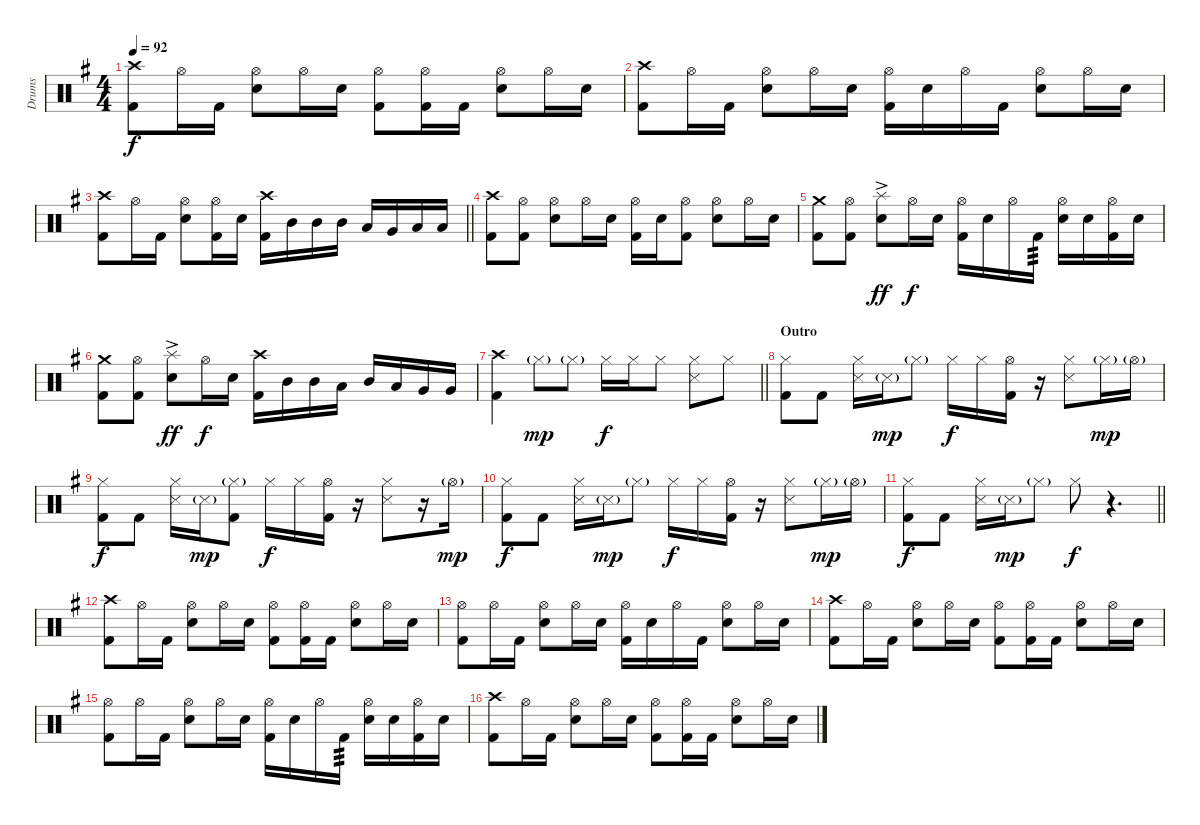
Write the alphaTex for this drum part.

\track ("Drums" "Drums") {instrument percussion}
\staff {score}
\articulation defaults
\ts (4 4)
\tempo 92
\clef neutral
\ks g
("Crash high (hit)" "Kick (hit) 2").8{dy f} "Hi-Hat (open)".16 "Kick (hit) 2".16 ("Hi-Hat (open)" "Electric Snare (hit)").8 "Hi-Hat (open)".16 "Electric Snare (hit)".16 ("Hi-Hat (open)" "Kick (hit) 2").8 ("Hi-Hat (open)" "Kick (hit) 2").16 "Kick (hit) 2".16 ("Hi-Hat (open)" "Electric Snare (hit)").8 "Hi-Hat (open)".16 "Electric Snare (hit)".16 |
("Crash high (hit)" "Kick (hit) 2").8 "Hi-Hat (open)".16 "Kick (hit) 2".16 ("Hi-Hat (open)" "Electric Snare (hit)").8 "Hi-Hat (open)".16 "Electric Snare (hit)".16 ("Hi-Hat (open)" "Kick (hit) 2").16 "Electric Snare (hit)".16 "Hi-Hat (open)".16 "Kick (hit) 2".16 ("Hi-Hat (open)" "Electric Snare (hit)").8 "Hi-Hat (open)".16 "Electric Snare (hit)".16 |
\barLineRight lightlight
("Crash high (hit)" "Kick (hit) 2").8 "Hi-Hat (open)".16 "Kick (hit) 2".16 ("Hi-Hat (open)" "Electric Snare (hit)").8 ("Hi-Hat (open)" "Kick (hit) 2").16 "Electric Snare (hit)".16 ("Crash high (hit)" "Kick (hit) 2").16 "Mid Tom (hit)".16 "Mid Tom (hit)".16 "Mid Tom (hit)".16 "Low Tom (hit)".16 "Very Low Tom (hit)".16 "Low Floor Tom (hit)".16 "Low Floor Tom (hit)".16 |
\section ("" "")
("Crash high (hit)" "Kick (hit) 2").8 ("Hi-Hat (open)" "Kick (hit) 2").8 ("Hi-Hat (open)" "Electric Snare (hit)").8 "Hi-Hat (open)".16 "Electric Snare (hit)".16 ("Hi-Hat (open)" "Kick (hit) 2").16 "Electric Snare (hit)".16 ("Hi-Hat (open)" "Kick (hit) 2").8 ("Hi-Hat (open)" "Electric Snare (hit)").8 "Hi-Hat (open)".16 "Electric Snare (hit)".16 |
("Crash medium (hit)" "Kick (hit) 2").8 ("Hi-Hat (open)" "Kick (hit) 2").8 ("Splash (hit)"{ac} "Electric Snare (hit)").8{dy ff} "Hi-Hat (open)".16{dy f} "Electric Snare (hit)".16 ("Hi-Hat (open)" "Kick (hit) 2").16 "Electric Snare (hit)".16 "Hi-Hat (open)".16 "Kick (hit) 2".16{tp 3} ("Hi-Hat (open)" "Electric Snare (hit)").16 "Electric Snare (hit)".16 ("Hi-Hat (open)" "Kick (hit) 2").16 "Electric Snare (hit)".16 |
("Crash medium (hit)" "Kick (hit) 2").8 ("Hi-Hat (open)" "Kick (hit) 2").8 ("Splash (hit)"{ac} "Electric Snare (hit)").8{dy ff} "Hi-Hat (open)".16{dy f} "Electric Snare (hit)".16 ("Crash high (hit)" "Kick (hit) 2").16 "Mid Tom (hit)".16 "Mid Tom (hit)".16 "Low Tom (hit)".16 "Mid Tom (hit)".16 "Low Tom (hit)".16 "Very Low Tom (hit)".16 "Very Low Tom (hit)".16 |
\barLineRight lightlight
("Crash high (hit)" "Kick (hit) 2").4 "Hi-Hat (closed)"{g}.8{dy mp} "Hi-Hat (closed)"{g}.8 "Hi-Hat (closed)".16{dy f} "Hi-Hat (closed)".16 "Hi-Hat (closed)".8 ("Hi-Hat (closed)" "Snare (side stick) 3").8 "Hi-Hat (closed)".8 |
\section ("" "Outro")
("Hi-Hat (closed)" "Kick (hit) 2").8 "Kick (hit) 2".8 ("Hi-Hat (closed)" "Snare (side stick) 3").16 "Snare (side stick) 3"{g}.16{dy mp} "Hi-Hat (closed)"{g}.8 "Hi-Hat (closed)".16{dy f} "Hi-Hat (closed)".16 ("Hi-Hat (open)" "Kick (hit) 2").16 r.16 ("Hi-Hat (closed)" "Snare (side stick) 3").8 "Hi-Hat (closed)"{g}.16{dy mp} "Hi-Hat (open)"{g}.16 |
("Hi-Hat (closed)" "Kick (hit) 2").8{dy f} "Kick (hit) 2".8 ("Hi-Hat (closed)" "Snare (side stick) 3").16 "Snare (side stick) 3"{g}.16{dy mp} ("Hi-Hat (closed)"{g} "Kick (hit) 2").8 "Hi-Hat (closed)".16{dy f} "Hi-Hat (closed)".16 ("Hi-Hat (open)" "Kick (hit) 2").16 r.16 ("Hi-Hat (closed)" "Snare (side stick) 3").8 r.16 "Hi-Hat (open)"{g}.16{dy mp} |
("Hi-Hat (closed)" "Kick (hit) 2").8{dy f} "Kick (hit) 2".8 ("Hi-Hat (closed)" "Snare (side stick) 3").16 "Snare (side stick) 3"{g}.16{dy mp} "Hi-Hat (closed)"{g}.8 "Hi-Hat (closed)".16{dy f} "Hi-Hat (closed)".16 ("Hi-Hat (open)" "Kick (hit) 2").16 r.16 ("Hi-Hat (closed)" "Snare (side stick) 3").8 "Hi-Hat (closed)"{g}.16{dy mp} "Hi-Hat (open)"{g}.16 |
\barLineRight lightlight
("Hi-Hat (closed)" "Kick (hit) 2").8{dy f} "Kick (hit) 2".8 ("Hi-Hat (closed)" "Snare (side stick) 3").16 "Snare (side stick) 3"{g}.16{dy mp} "Hi-Hat (closed)"{g}.8 "Hi-Hat (closed)".8{dy f} r.4{d} |
\section ("" "")
("Crash high (hit)" "Kick (hit) 2").8 "Hi-Hat (open)".16 "Kick (hit) 2".16 ("Hi-Hat (open)" "Electric Snare (hit)").8 "Hi-Hat (open)".16 "Electric Snare (hit)".16 ("Hi-Hat (open)" "Kick (hit) 2").8 ("Hi-Hat (open)" "Kick (hit) 2").16 "Kick (hit) 2".16 ("Hi-Hat (open)" "Electric Snare (hit)").8 "Hi-Hat (open)".16 "Electric Snare (hit)".16 |
("Hi-Hat (open)" "Kick (hit) 2").8 "Hi-Hat (open)".16 "Kick (hit) 2".16 ("Hi-Hat (open)" "Electric Snare (hit)").8 "Hi-Hat (open)".16 "Electric Snare (hit)".16 ("Hi-Hat (open)" "Kick (hit) 2").16 "Electric Snare (hit)".16 "Hi-Hat (open)".16 "Kick (hit) 2".16 ("Hi-Hat (open)" "Electric Snare (hit)").8 "Hi-Hat (open)".16 "Electric Snare (hit)".16 |
("Crash high (hit)" "Kick (hit) 2").8 "Hi-Hat (open)".16 "Kick (hit) 2".16 ("Hi-Hat (open)" "Electric Snare (hit)").8 "Hi-Hat (open)".16 "Electric Snare (hit)".16 ("Hi-Hat (open)" "Kick (hit) 2").8 ("Hi-Hat (open)" "Kick (hit) 2").16 "Kick (hit) 2".16 ("Hi-Hat (open)" "Electric Snare (hit)").8 "Hi-Hat (open)".16 "Electric Snare (hit)".16 |
("Hi-Hat (open)" "Kick (hit) 2").8 "Hi-Hat (open)".16 "Kick (hit) 2".16 ("Hi-Hat (open)" "Electric Snare (hit)").8 "Hi-Hat (open)".16 "Electric Snare (hit)".16 ("Hi-Hat (open)" "Kick (hit) 2").16 "Electric Snare (hit)".16 "Hi-Hat (open)".16 "Kick (hit) 2".16{tp 3} ("Hi-Hat (open)" "Electric Snare (hit)").16 "Electric Snare (hit)".16 ("Hi-Hat (open)" "Kick (hit) 2").16 "Electric Snare (hit)".16 |
("Crash high (hit)" "Kick (hit) 2").8 "Hi-Hat (open)".16 "Kick (hit) 2".16 ("Hi-Hat (open)" "Electric Snare (hit)").8 "Hi-Hat (open)".16 "Electric Snare (hit)".16 ("Hi-Hat (open)" "Kick (hit) 2").8 ("Hi-Hat (open)" "Kick (hit) 2").16 "Kick (hit) 2".16 ("Hi-Hat (open)" "Electric Snare (hit)").8 "Hi-Hat (open)".16 "Electric Snare (hit)".16
